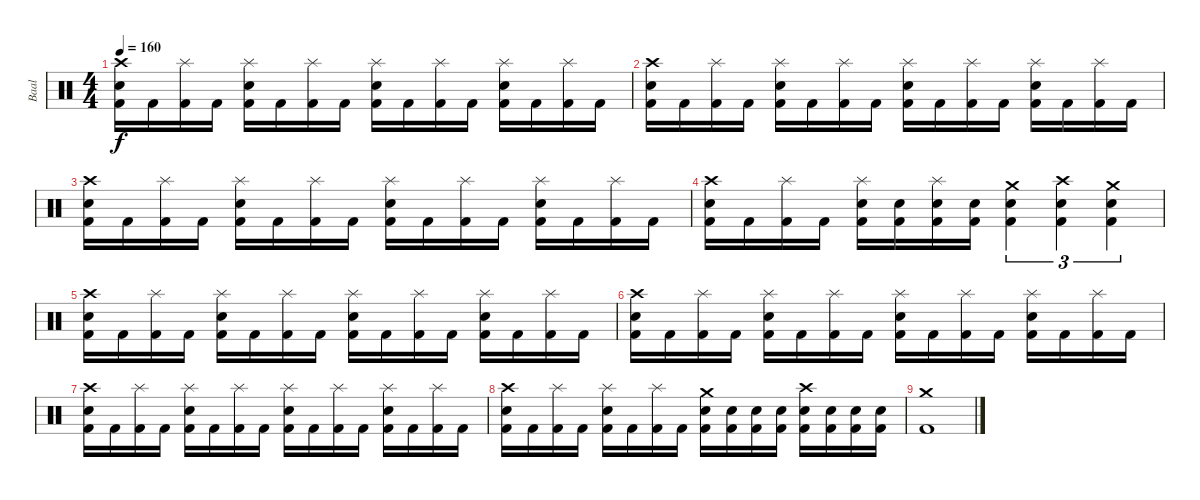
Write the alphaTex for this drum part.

\track ("Baal" "Baal") {instrument percussion}
\staff {score}
\articulation defaults
\ts (4 4)
\tempo 160
\clef neutral
\ks c
("Crash high (hit)" "Electric Snare (hit)" "Kick (hit) 2").16{dy f} "Kick (hit) 2".16 ("Splash (hit)" "Kick (hit) 2").16 "Kick (hit) 2".16 ("Splash (hit)" "Electric Snare (hit)" "Kick (hit) 2").16 "Kick (hit) 2".16 ("Splash (hit)" "Kick (hit) 2").16 "Kick (hit) 2".16 ("Splash (hit)" "Electric Snare (hit)" "Kick (hit) 2").16 "Kick (hit) 2".16 ("Splash (hit)" "Kick (hit) 2").16 "Kick (hit) 2".16 ("Splash (hit)" "Electric Snare (hit)" "Kick (hit) 2").16 "Kick (hit) 2".16 ("Splash (hit)" "Kick (hit) 2").16 "Kick (hit) 2".16 |
("Crash high (hit)" "Electric Snare (hit)" "Kick (hit) 2").16 "Kick (hit) 2".16 ("Splash (hit)" "Kick (hit) 2").16 "Kick (hit) 2".16 ("Splash (hit)" "Electric Snare (hit)" "Kick (hit) 2").16 "Kick (hit) 2".16 ("Splash (hit)" "Kick (hit) 2").16 "Kick (hit) 2".16 ("Splash (hit)" "Electric Snare (hit)" "Kick (hit) 2").16 "Kick (hit) 2".16 ("Splash (hit)" "Kick (hit) 2").16 "Kick (hit) 2".16 ("Splash (hit)" "Electric Snare (hit)" "Kick (hit) 2").16 "Kick (hit) 2".16 ("Splash (hit)" "Kick (hit) 2").16 "Kick (hit) 2".16 |
("Crash high (hit)" "Electric Snare (hit)" "Kick (hit) 2").16 "Kick (hit) 2".16 ("Splash (hit)" "Kick (hit) 2").16 "Kick (hit) 2".16 ("Splash (hit)" "Electric Snare (hit)" "Kick (hit) 2").16 "Kick (hit) 2".16 ("Splash (hit)" "Kick (hit) 2").16 "Kick (hit) 2".16 ("Splash (hit)" "Electric Snare (hit)" "Kick (hit) 2").16 "Kick (hit) 2".16 ("Splash (hit)" "Kick (hit) 2").16 "Kick (hit) 2".16 ("Splash (hit)" "Electric Snare (hit)" "Kick (hit) 2").16 "Kick (hit) 2".16 ("Splash (hit)" "Kick (hit) 2").16 "Kick (hit) 2".16 |
("Crash high (hit)" "Electric Snare (hit)" "Kick (hit) 2").16 "Kick (hit) 2".16 ("Splash (hit)" "Kick (hit) 2").16 "Kick (hit) 2".16 ("Splash (hit)" "Electric Snare (hit)" "Kick (hit) 2").16 ("Electric Snare (hit)" "Kick (hit) 2").16 ("Splash (hit)" "Electric Snare (hit)" "Kick (hit) 2").16 ("Electric Snare (hit)" "Kick (hit) 2").16 ("Crash medium (hit)" "Electric Snare (hit)" "Kick (hit) 2").4{tu (3 2)} ("Crash high (hit)" "Electric Snare (hit)" "Kick (hit) 2").4{tu (3 2)} ("Crash medium (hit)" "Electric Snare (hit)" "Kick (hit) 2").4{tu (3 2)} |
("Crash high (hit)" "Electric Snare (hit)" "Kick (hit) 2").16 "Kick (hit) 2".16 ("Splash (hit)" "Kick (hit) 2").16 "Kick (hit) 2".16 ("Splash (hit)" "Electric Snare (hit)" "Kick (hit) 2").16 "Kick (hit) 2".16 ("Splash (hit)" "Kick (hit) 2").16 "Kick (hit) 2".16 ("Splash (hit)" "Electric Snare (hit)" "Kick (hit) 2").16 "Kick (hit) 2".16 ("Splash (hit)" "Kick (hit) 2").16 "Kick (hit) 2".16 ("Splash (hit)" "Electric Snare (hit)" "Kick (hit) 2").16 "Kick (hit) 2".16 ("Splash (hit)" "Kick (hit) 2").16 "Kick (hit) 2".16 |
("Crash high (hit)" "Electric Snare (hit)" "Kick (hit) 2").16 "Kick (hit) 2".16 ("Splash (hit)" "Kick (hit) 2").16 "Kick (hit) 2".16 ("Splash (hit)" "Electric Snare (hit)" "Kick (hit) 2").16 "Kick (hit) 2".16 ("Splash (hit)" "Kick (hit) 2").16 "Kick (hit) 2".16 ("Splash (hit)" "Electric Snare (hit)" "Kick (hit) 2").16 "Kick (hit) 2".16 ("Splash (hit)" "Kick (hit) 2").16 "Kick (hit) 2".16 ("Splash (hit)" "Electric Snare (hit)" "Kick (hit) 2").16 "Kick (hit) 2".16 ("Splash (hit)" "Kick (hit) 2").16 "Kick (hit) 2".16 |
("Crash high (hit)" "Electric Snare (hit)" "Kick (hit) 2").16 "Kick (hit) 2".16 ("Splash (hit)" "Kick (hit) 2").16 "Kick (hit) 2".16 ("Splash (hit)" "Electric Snare (hit)" "Kick (hit) 2").16 "Kick (hit) 2".16 ("Splash (hit)" "Kick (hit) 2").16 "Kick (hit) 2".16 ("Splash (hit)" "Electric Snare (hit)" "Kick (hit) 2").16 "Kick (hit) 2".16 ("Splash (hit)" "Kick (hit) 2").16 "Kick (hit) 2".16 ("Splash (hit)" "Electric Snare (hit)" "Kick (hit) 2").16 "Kick (hit) 2".16 ("Splash (hit)" "Kick (hit) 2").16 "Kick (hit) 2".16 |
("Crash high (hit)" "Electric Snare (hit)" "Kick (hit) 2").16 "Kick (hit) 2".16 ("Splash (hit)" "Kick (hit) 2").16 "Kick (hit) 2".16 ("Splash (hit)" "Electric Snare (hit)" "Kick (hit) 2").16 "Kick (hit) 2".16 ("Splash (hit)" "Kick (hit) 2").16 "Kick (hit) 2".16 ("Crash medium (hit)" "Electric Snare (hit)" "Kick (hit) 2").16 ("Electric Snare (hit)" "Kick (hit) 2").16 ("Electric Snare (hit)" "Kick (hit) 2").16 ("Electric Snare (hit)" "Kick (hit) 2").16 ("Crash high (hit)" "Electric Snare (hit)" "Kick (hit) 2").16 ("Electric Snare (hit)" "Kick (hit) 2").16 ("Electric Snare (hit)" "Kick (hit) 2").16 ("Electric Snare (hit)" "Kick (hit) 2").16 |
("Crash medium (hit)" "Kick (hit) 2").1
